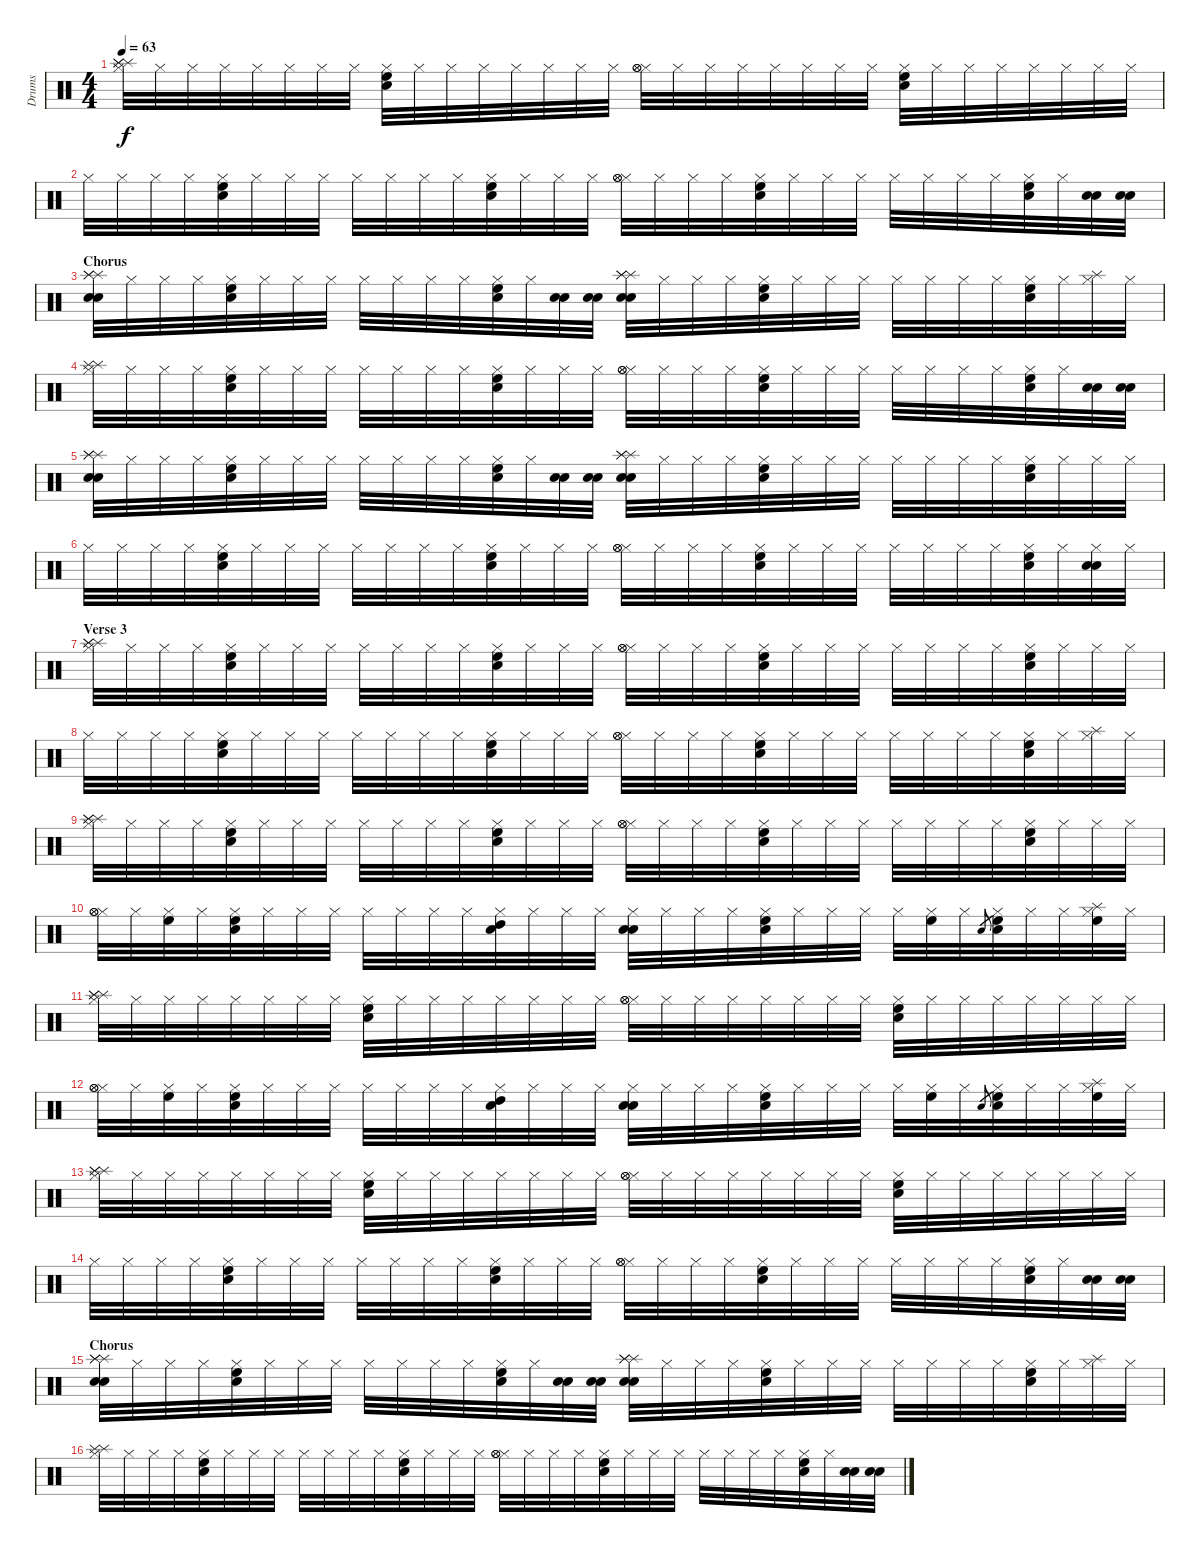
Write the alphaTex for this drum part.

\track ("Drums" "Drums") {instrument percussion}
\staff {score}
\articulation defaults
\ts (4 4)
\tempo 63
\clef neutral
\ks c
("Hi-Hat (closed)" "Splash (hit)" "Splash (hit)" "Splash (hit)").32{dy f} "Hi-Hat (closed)".32 "Hi-Hat (closed)".32 "Hi-Hat (closed)".32 "Hi-Hat (closed)".32 "Hi-Hat (closed)".32 "Hi-Hat (closed)".32 "Hi-Hat (closed)".32 ("Hi-Hat (closed)" "Snare (hit) 2" "High Floor Tom (hit)").32 "Hi-Hat (closed)".32 "Hi-Hat (closed)".32 "Hi-Hat (closed)".32 "Hi-Hat (closed)".32 "Hi-Hat (closed)".32 "Hi-Hat (closed)".32 "Hi-Hat (closed)".32 ("Hi-Hat (closed)" "Hi-Hat (open)" "Hi-Hat (open)").32 "Hi-Hat (closed)".32 "Hi-Hat (closed)".32 "Hi-Hat (closed)".32 "Hi-Hat (closed)".32 "Hi-Hat (closed)".32 "Hi-Hat (closed)".32 "Hi-Hat (closed)".32 ("Hi-Hat (closed)" "Snare (hit) 2" "High Floor Tom (hit)").32 "Hi-Hat (closed)".32 "Hi-Hat (closed)".32 "Hi-Hat (closed)".32 "Hi-Hat (closed)".32 "Hi-Hat (closed)".32 "Hi-Hat (closed)".32 "Hi-Hat (closed)".32 |
"Hi-Hat (closed)".32 "Hi-Hat (closed)".32 "Hi-Hat (closed)".32 "Hi-Hat (closed)".32 ("Hi-Hat (closed)" "Snare (hit) 2" "High Floor Tom (hit)").32 "Hi-Hat (closed)".32 "Hi-Hat (closed)".32 "Hi-Hat (closed)".32 "Hi-Hat (closed)".32 "Hi-Hat (closed)".32 "Hi-Hat (closed)".32 "Hi-Hat (closed)".32 ("Hi-Hat (closed)" "Snare (hit) 2" "High Floor Tom (hit)").32 "Hi-Hat (closed)".32 "Hi-Hat (closed)".32 "Hi-Hat (closed)".32 ("Hi-Hat (closed)" "Hi-Hat (open)" "Hi-Hat (open)").32 "Hi-Hat (closed)".32 "Hi-Hat (closed)".32 "Hi-Hat (closed)".32 ("Hi-Hat (closed)" "Snare (hit) 2" "High Floor Tom (hit)").32 "Hi-Hat (closed)".32 "Hi-Hat (closed)".32 "Hi-Hat (closed)".32 "Hi-Hat (closed)".32 "Hi-Hat (closed)".32 "Hi-Hat (closed)".32 "Hi-Hat (closed)".32 ("Hi-Hat (closed)" "Snare (hit) 2" "High Floor Tom (hit)").32 "Hi-Hat (closed)".32 ("Snare (hit) 2" "Snare (hit) 2").32 ("Snare (hit) 2" "Snare (hit) 2").32 |
\section ("" "Chorus")
("Snare (hit) 2" "Snare (hit) 2" "Splash (hit)" "Splash (hit)" "Splash (hit)").32 "Hi-Hat (closed)".32 "Hi-Hat (closed)".32 "Hi-Hat (closed)".32 ("Hi-Hat (closed)" "Snare (hit) 2" "High Floor Tom (hit)").32 "Hi-Hat (closed)".32 "Hi-Hat (closed)".32 "Hi-Hat (closed)".32 "Hi-Hat (closed)".32 "Hi-Hat (closed)".32 "Hi-Hat (closed)".32 "Hi-Hat (closed)".32 ("Hi-Hat (closed)" "Snare (hit) 2" "High Floor Tom (hit)").32 "Hi-Hat (closed)".32 ("Snare (hit) 2" "Snare (hit) 2").32 ("Snare (hit) 2" "Snare (hit) 2").32 ("Snare (hit) 2" "Snare (hit) 2" "Splash (hit)" "Splash (hit)" "Splash (hit)").32 "Hi-Hat (closed)".32 "Hi-Hat (closed)".32 "Hi-Hat (closed)".32 ("Hi-Hat (closed)" "Snare (hit) 2" "High Floor Tom (hit)").32 "Hi-Hat (closed)".32 "Hi-Hat (closed)".32 "Hi-Hat (closed)".32 "Hi-Hat (closed)".32 "Hi-Hat (closed)".32 "Hi-Hat (closed)".32 "Hi-Hat (closed)".32 ("Hi-Hat (closed)" "Snare (hit) 2" "High Floor Tom (hit)").32 "Hi-Hat (closed)".32 ("Hi-Hat (closed)" "Splash (hit)").32 "Hi-Hat (closed)".32 |
("Hi-Hat (closed)" "Splash (hit)" "Splash (hit)").32 "Hi-Hat (closed)".32 "Hi-Hat (closed)".32 "Hi-Hat (closed)".32 ("Hi-Hat (closed)" "Snare (hit) 2" "High Floor Tom (hit)").32 "Hi-Hat (closed)".32 "Hi-Hat (closed)".32 "Hi-Hat (closed)".32 "Hi-Hat (closed)".32 "Hi-Hat (closed)".32 "Hi-Hat (closed)".32 "Hi-Hat (closed)".32 ("Hi-Hat (closed)" "Snare (hit) 2" "High Floor Tom (hit)").32 "Hi-Hat (closed)".32 "Hi-Hat (closed)".32 "Hi-Hat (closed)".32 ("Hi-Hat (closed)" "Hi-Hat (open)" "Hi-Hat (open)").32 "Hi-Hat (closed)".32 "Hi-Hat (closed)".32 "Hi-Hat (closed)".32 ("Hi-Hat (closed)" "Snare (hit) 2" "High Floor Tom (hit)").32 "Hi-Hat (closed)".32 "Hi-Hat (closed)".32 "Hi-Hat (closed)".32 "Hi-Hat (closed)".32 "Hi-Hat (closed)".32 "Hi-Hat (closed)".32 "Hi-Hat (closed)".32 ("Hi-Hat (closed)" "Snare (hit) 2" "High Floor Tom (hit)").32 "Hi-Hat (closed)".32 ("Snare (hit) 2" "Snare (hit) 2").32 ("Snare (hit) 2" "Snare (hit) 2").32 |
("Snare (hit) 2" "Snare (hit) 2" "Splash (hit)" "Splash (hit)" "Splash (hit)").32 "Hi-Hat (closed)".32 "Hi-Hat (closed)".32 "Hi-Hat (closed)".32 ("Hi-Hat (closed)" "Snare (hit) 2" "High Floor Tom (hit)").32 "Hi-Hat (closed)".32 "Hi-Hat (closed)".32 "Hi-Hat (closed)".32 "Hi-Hat (closed)".32 "Hi-Hat (closed)".32 "Hi-Hat (closed)".32 "Hi-Hat (closed)".32 ("Hi-Hat (closed)" "Snare (hit) 2" "High Floor Tom (hit)").32 "Hi-Hat (closed)".32 ("Snare (hit) 2" "Snare (hit) 2").32 ("Snare (hit) 2" "Snare (hit) 2").32 ("Snare (hit) 2" "Snare (hit) 2" "Splash (hit)" "Splash (hit)" "Splash (hit)").32 "Hi-Hat (closed)".32 "Hi-Hat (closed)".32 "Hi-Hat (closed)".32 ("Hi-Hat (closed)" "Snare (hit) 2" "High Floor Tom (hit)").32 "Hi-Hat (closed)".32 "Hi-Hat (closed)".32 "Hi-Hat (closed)".32 "Hi-Hat (closed)".32 "Hi-Hat (closed)".32 "Hi-Hat (closed)".32 "Hi-Hat (closed)".32 ("Hi-Hat (closed)" "Snare (hit) 2" "High Floor Tom (hit)").32 "Hi-Hat (closed)".32 "Hi-Hat (closed)".32 "Hi-Hat (closed)".32 |
"Hi-Hat (closed)".32 "Hi-Hat (closed)".32 "Hi-Hat (closed)".32 "Hi-Hat (closed)".32 ("Hi-Hat (closed)" "Snare (hit) 2" "High Floor Tom (hit)").32 "Hi-Hat (closed)".32 "Hi-Hat (closed)".32 "Hi-Hat (closed)".32 "Hi-Hat (closed)".32 "Hi-Hat (closed)".32 "Hi-Hat (closed)".32 "Hi-Hat (closed)".32 ("Hi-Hat (closed)" "Snare (hit) 2" "High Floor Tom (hit)").32 "Hi-Hat (closed)".32 "Hi-Hat (closed)".32 "Hi-Hat (closed)".32 ("Hi-Hat (closed)" "Hi-Hat (open)" "Hi-Hat (open)").32 "Hi-Hat (closed)".32 "Hi-Hat (closed)".32 "Hi-Hat (closed)".32 ("Hi-Hat (closed)" "Snare (hit) 2" "High Floor Tom (hit)").32 "Hi-Hat (closed)".32 "Hi-Hat (closed)".32 "Hi-Hat (closed)".32 "Hi-Hat (closed)".32 "Hi-Hat (closed)".32 "Hi-Hat (closed)".32 "Hi-Hat (closed)".32 ("Hi-Hat (closed)" "Snare (hit) 2" "High Floor Tom (hit)").32 "Hi-Hat (closed)".32 ("Hi-Hat (closed)" "Snare (hit) 2" "Snare (hit) 2").32 "Hi-Hat (closed)".32 |
\section ("" "Verse 3")
("Hi-Hat (closed)" "Splash (hit)" "Splash (hit)" "Splash (hit)").32 "Hi-Hat (closed)".32 "Hi-Hat (closed)".32 "Hi-Hat (closed)".32 ("Hi-Hat (closed)" "Snare (hit) 2" "High Floor Tom (hit)").32 "Hi-Hat (closed)".32 "Hi-Hat (closed)".32 "Hi-Hat (closed)".32 "Hi-Hat (closed)".32 "Hi-Hat (closed)".32 "Hi-Hat (closed)".32 "Hi-Hat (closed)".32 ("Hi-Hat (closed)" "Snare (hit) 2" "High Floor Tom (hit)").32 "Hi-Hat (closed)".32 "Hi-Hat (closed)".32 "Hi-Hat (closed)".32 ("Hi-Hat (closed)" "Hi-Hat (open)" "Hi-Hat (open)").32 "Hi-Hat (closed)".32 "Hi-Hat (closed)".32 "Hi-Hat (closed)".32 ("Hi-Hat (closed)" "Snare (hit) 2" "High Floor Tom (hit)").32 "Hi-Hat (closed)".32 "Hi-Hat (closed)".32 "Hi-Hat (closed)".32 "Hi-Hat (closed)".32 "Hi-Hat (closed)".32 "Hi-Hat (closed)".32 "Hi-Hat (closed)".32 ("Hi-Hat (closed)" "Snare (hit) 2" "High Floor Tom (hit)").32 "Hi-Hat (closed)".32 "Hi-Hat (closed)".32 "Hi-Hat (closed)".32 |
"Hi-Hat (closed)".32 "Hi-Hat (closed)".32 "Hi-Hat (closed)".32 "Hi-Hat (closed)".32 ("Hi-Hat (closed)" "Snare (hit) 2" "High Floor Tom (hit)").32 "Hi-Hat (closed)".32 "Hi-Hat (closed)".32 "Hi-Hat (closed)".32 "Hi-Hat (closed)".32 "Hi-Hat (closed)".32 "Hi-Hat (closed)".32 "Hi-Hat (closed)".32 ("Hi-Hat (closed)" "Snare (hit) 2" "High Floor Tom (hit)").32 "Hi-Hat (closed)".32 "Hi-Hat (closed)".32 "Hi-Hat (closed)".32 ("Hi-Hat (closed)" "Hi-Hat (open)" "Hi-Hat (open)").32 "Hi-Hat (closed)".32 "Hi-Hat (closed)".32 "Hi-Hat (closed)".32 ("Hi-Hat (closed)" "Snare (hit) 2" "High Floor Tom (hit)").32 "Hi-Hat (closed)".32 "Hi-Hat (closed)".32 "Hi-Hat (closed)".32 "Hi-Hat (closed)".32 "Hi-Hat (closed)".32 "Hi-Hat (closed)".32 "Hi-Hat (closed)".32 ("Hi-Hat (closed)" "Snare (hit) 2" "High Floor Tom (hit)").32 "Hi-Hat (closed)".32 ("Hi-Hat (closed)" "Splash (hit)").32 "Hi-Hat (closed)".32 |
("Hi-Hat (closed)" "Splash (hit)" "Splash (hit)" "Splash (hit)").32 "Hi-Hat (closed)".32 "Hi-Hat (closed)".32 "Hi-Hat (closed)".32 ("Hi-Hat (closed)" "Snare (hit) 2" "High Floor Tom (hit)").32 "Hi-Hat (closed)".32 "Hi-Hat (closed)".32 "Hi-Hat (closed)".32 "Hi-Hat (closed)".32 "Hi-Hat (closed)".32 "Hi-Hat (closed)".32 "Hi-Hat (closed)".32 ("Hi-Hat (closed)" "Snare (hit) 2" "High Floor Tom (hit)").32 "Hi-Hat (closed)".32 "Hi-Hat (closed)".32 "Hi-Hat (closed)".32 ("Hi-Hat (closed)" "Hi-Hat (open)" "Hi-Hat (open)").32 "Hi-Hat (closed)".32 "Hi-Hat (closed)".32 "Hi-Hat (closed)".32 ("Hi-Hat (closed)" "Snare (hit) 2" "High Floor Tom (hit)").32 "Hi-Hat (closed)".32 "Hi-Hat (closed)".32 "Hi-Hat (closed)".32 "Hi-Hat (closed)".32 "Hi-Hat (closed)".32 "Hi-Hat (closed)".32 "Hi-Hat (closed)".32 ("Hi-Hat (closed)" "Snare (hit) 2" "High Floor Tom (hit)").32 "Hi-Hat (closed)".32 "Hi-Hat (closed)".32 "Hi-Hat (closed)".32 |
("Hi-Hat (closed)" "Hi-Hat (open)" "Hi-Hat (open)").32 "Hi-Hat (closed)".32 ("Hi-Hat (closed)" "High Floor Tom (hit)").32 "Hi-Hat (closed)".32 ("Hi-Hat (closed)" "Snare (hit) 2" "High Floor Tom (hit)").32 "Hi-Hat (closed)".32 "Hi-Hat (closed)".32 "Hi-Hat (closed)".32 "Hi-Hat (closed)".32 "Hi-Hat (closed)".32 "Hi-Hat (closed)".32 "Hi-Hat (closed)".32 ("Hi-Hat (closed)" "Snare (hit) 2" "High Tom (hit)").32 "Hi-Hat (closed)".32 "Hi-Hat (closed)".32 "Hi-Hat (closed)".32 ("Hi-Hat (closed)" "Snare (hit) 2" "Snare (hit) 2").32 "Hi-Hat (closed)".32 "Hi-Hat (closed)".32 "Hi-Hat (closed)".32 ("Hi-Hat (closed)" "Snare (hit) 2" "High Floor Tom (hit)").32 "Hi-Hat (closed)".32 "Hi-Hat (closed)".32 "Hi-Hat (closed)".32 "Hi-Hat (closed)".32 ("Hi-Hat (closed)" "High Floor Tom (hit)").32 "Hi-Hat (closed)".32 "Snare (hit) 2".8{gr} ("Hi-Hat (closed)" "Snare (hit) 2" "High Floor Tom (hit)").32 "Hi-Hat (closed)".32 "Hi-Hat (closed)".32 ("Hi-Hat (closed)" "Splash (hit)" "High Floor Tom (hit)").32 "Hi-Hat (closed)".32 |
("Hi-Hat (closed)" "Splash (hit)" "Splash (hit)" "Splash (hit)").32 "Hi-Hat (closed)".32 "Hi-Hat (closed)".32 "Hi-Hat (closed)".32 "Hi-Hat (closed)".32 "Hi-Hat (closed)".32 "Hi-Hat (closed)".32 "Hi-Hat (closed)".32 ("Hi-Hat (closed)" "Snare (hit) 2" "High Floor Tom (hit)").32 "Hi-Hat (closed)".32 "Hi-Hat (closed)".32 "Hi-Hat (closed)".32 "Hi-Hat (closed)".32 "Hi-Hat (closed)".32 "Hi-Hat (closed)".32 "Hi-Hat (closed)".32 ("Hi-Hat (closed)" "Hi-Hat (open)" "Hi-Hat (open)").32 "Hi-Hat (closed)".32 "Hi-Hat (closed)".32 "Hi-Hat (closed)".32 "Hi-Hat (closed)".32 "Hi-Hat (closed)".32 "Hi-Hat (closed)".32 "Hi-Hat (closed)".32 ("Hi-Hat (closed)" "Snare (hit) 2" "High Floor Tom (hit)").32 "Hi-Hat (closed)".32 "Hi-Hat (closed)".32 "Hi-Hat (closed)".32 "Hi-Hat (closed)".32 "Hi-Hat (closed)".32 "Hi-Hat (closed)".32 "Hi-Hat (closed)".32 |
("Hi-Hat (closed)" "Hi-Hat (open)" "Hi-Hat (open)").32 "Hi-Hat (closed)".32 ("Hi-Hat (closed)" "High Floor Tom (hit)").32 "Hi-Hat (closed)".32 ("Hi-Hat (closed)" "Snare (hit) 2" "High Floor Tom (hit)").32 "Hi-Hat (closed)".32 "Hi-Hat (closed)".32 "Hi-Hat (closed)".32 "Hi-Hat (closed)".32 "Hi-Hat (closed)".32 "Hi-Hat (closed)".32 "Hi-Hat (closed)".32 ("Hi-Hat (closed)" "Snare (hit) 2" "High Tom (hit)").32 "Hi-Hat (closed)".32 "Hi-Hat (closed)".32 "Hi-Hat (closed)".32 ("Hi-Hat (closed)" "Snare (hit) 2" "Snare (hit) 2").32 "Hi-Hat (closed)".32 "Hi-Hat (closed)".32 "Hi-Hat (closed)".32 ("Hi-Hat (closed)" "Snare (hit) 2" "High Floor Tom (hit)").32 "Hi-Hat (closed)".32 "Hi-Hat (closed)".32 "Hi-Hat (closed)".32 "Hi-Hat (closed)".32 ("Hi-Hat (closed)" "High Floor Tom (hit)").32 "Hi-Hat (closed)".32 "Snare (hit) 2".8{gr} ("Hi-Hat (closed)" "Snare (hit) 2" "High Floor Tom (hit)").32 "Hi-Hat (closed)".32 "Hi-Hat (closed)".32 ("Hi-Hat (closed)" "Splash (hit)" "High Floor Tom (hit)").32 "Hi-Hat (closed)".32 |
("Hi-Hat (closed)" "Splash (hit)" "Splash (hit)" "Splash (hit)").32 "Hi-Hat (closed)".32 "Hi-Hat (closed)".32 "Hi-Hat (closed)".32 "Hi-Hat (closed)".32 "Hi-Hat (closed)".32 "Hi-Hat (closed)".32 "Hi-Hat (closed)".32 ("Hi-Hat (closed)" "Snare (hit) 2" "High Floor Tom (hit)").32 "Hi-Hat (closed)".32 "Hi-Hat (closed)".32 "Hi-Hat (closed)".32 "Hi-Hat (closed)".32 "Hi-Hat (closed)".32 "Hi-Hat (closed)".32 "Hi-Hat (closed)".32 ("Hi-Hat (closed)" "Hi-Hat (open)" "Hi-Hat (open)").32 "Hi-Hat (closed)".32 "Hi-Hat (closed)".32 "Hi-Hat (closed)".32 "Hi-Hat (closed)".32 "Hi-Hat (closed)".32 "Hi-Hat (closed)".32 "Hi-Hat (closed)".32 ("Hi-Hat (closed)" "Snare (hit) 2" "High Floor Tom (hit)").32 "Hi-Hat (closed)".32 "Hi-Hat (closed)".32 "Hi-Hat (closed)".32 "Hi-Hat (closed)".32 "Hi-Hat (closed)".32 "Hi-Hat (closed)".32 "Hi-Hat (closed)".32 |
"Hi-Hat (closed)".32 "Hi-Hat (closed)".32 "Hi-Hat (closed)".32 "Hi-Hat (closed)".32 ("Hi-Hat (closed)" "Snare (hit) 2" "High Floor Tom (hit)").32 "Hi-Hat (closed)".32 "Hi-Hat (closed)".32 "Hi-Hat (closed)".32 "Hi-Hat (closed)".32 "Hi-Hat (closed)".32 "Hi-Hat (closed)".32 "Hi-Hat (closed)".32 ("Hi-Hat (closed)" "Snare (hit) 2" "High Floor Tom (hit)").32 "Hi-Hat (closed)".32 "Hi-Hat (closed)".32 "Hi-Hat (closed)".32 ("Hi-Hat (closed)" "Hi-Hat (open)" "Hi-Hat (open)").32 "Hi-Hat (closed)".32 "Hi-Hat (closed)".32 "Hi-Hat (closed)".32 ("Hi-Hat (closed)" "Snare (hit) 2" "High Floor Tom (hit)").32 "Hi-Hat (closed)".32 "Hi-Hat (closed)".32 "Hi-Hat (closed)".32 "Hi-Hat (closed)".32 "Hi-Hat (closed)".32 "Hi-Hat (closed)".32 "Hi-Hat (closed)".32 ("Hi-Hat (closed)" "Snare (hit) 2" "High Floor Tom (hit)").32 "Hi-Hat (closed)".32 ("Snare (hit) 2" "Snare (hit) 2").32 ("Snare (hit) 2" "Snare (hit) 2").32 |
\section ("" "Chorus")
("Snare (hit) 2" "Snare (hit) 2" "Splash (hit)" "Splash (hit)" "Splash (hit)").32 "Hi-Hat (closed)".32 "Hi-Hat (closed)".32 "Hi-Hat (closed)".32 ("Hi-Hat (closed)" "Snare (hit) 2" "High Floor Tom (hit)").32 "Hi-Hat (closed)".32 "Hi-Hat (closed)".32 "Hi-Hat (closed)".32 "Hi-Hat (closed)".32 "Hi-Hat (closed)".32 "Hi-Hat (closed)".32 "Hi-Hat (closed)".32 ("Hi-Hat (closed)" "Snare (hit) 2" "High Floor Tom (hit)").32 "Hi-Hat (closed)".32 ("Snare (hit) 2" "Snare (hit) 2").32 ("Snare (hit) 2" "Snare (hit) 2").32 ("Snare (hit) 2" "Snare (hit) 2" "Splash (hit)" "Splash (hit)" "Splash (hit)").32 "Hi-Hat (closed)".32 "Hi-Hat (closed)".32 "Hi-Hat (closed)".32 ("Hi-Hat (closed)" "Snare (hit) 2" "High Floor Tom (hit)").32 "Hi-Hat (closed)".32 "Hi-Hat (closed)".32 "Hi-Hat (closed)".32 "Hi-Hat (closed)".32 "Hi-Hat (closed)".32 "Hi-Hat (closed)".32 "Hi-Hat (closed)".32 ("Hi-Hat (closed)" "Snare (hit) 2" "High Floor Tom (hit)").32 "Hi-Hat (closed)".32 ("Hi-Hat (closed)" "Splash (hit)").32 "Hi-Hat (closed)".32 |
("Hi-Hat (closed)" "Splash (hit)" "Splash (hit)").32 "Hi-Hat (closed)".32 "Hi-Hat (closed)".32 "Hi-Hat (closed)".32 ("Hi-Hat (closed)" "Snare (hit) 2" "High Floor Tom (hit)").32 "Hi-Hat (closed)".32 "Hi-Hat (closed)".32 "Hi-Hat (closed)".32 "Hi-Hat (closed)".32 "Hi-Hat (closed)".32 "Hi-Hat (closed)".32 "Hi-Hat (closed)".32 ("Hi-Hat (closed)" "Snare (hit) 2" "High Floor Tom (hit)").32 "Hi-Hat (closed)".32 "Hi-Hat (closed)".32 "Hi-Hat (closed)".32 ("Hi-Hat (closed)" "Hi-Hat (open)" "Hi-Hat (open)").32 "Hi-Hat (closed)".32 "Hi-Hat (closed)".32 "Hi-Hat (closed)".32 ("Hi-Hat (closed)" "Snare (hit) 2" "High Floor Tom (hit)").32 "Hi-Hat (closed)".32 "Hi-Hat (closed)".32 "Hi-Hat (closed)".32 "Hi-Hat (closed)".32 "Hi-Hat (closed)".32 "Hi-Hat (closed)".32 "Hi-Hat (closed)".32 ("Hi-Hat (closed)" "Snare (hit) 2" "High Floor Tom (hit)").32 "Hi-Hat (closed)".32 ("Snare (hit) 2" "Snare (hit) 2").32 ("Snare (hit) 2" "Snare (hit) 2").32
